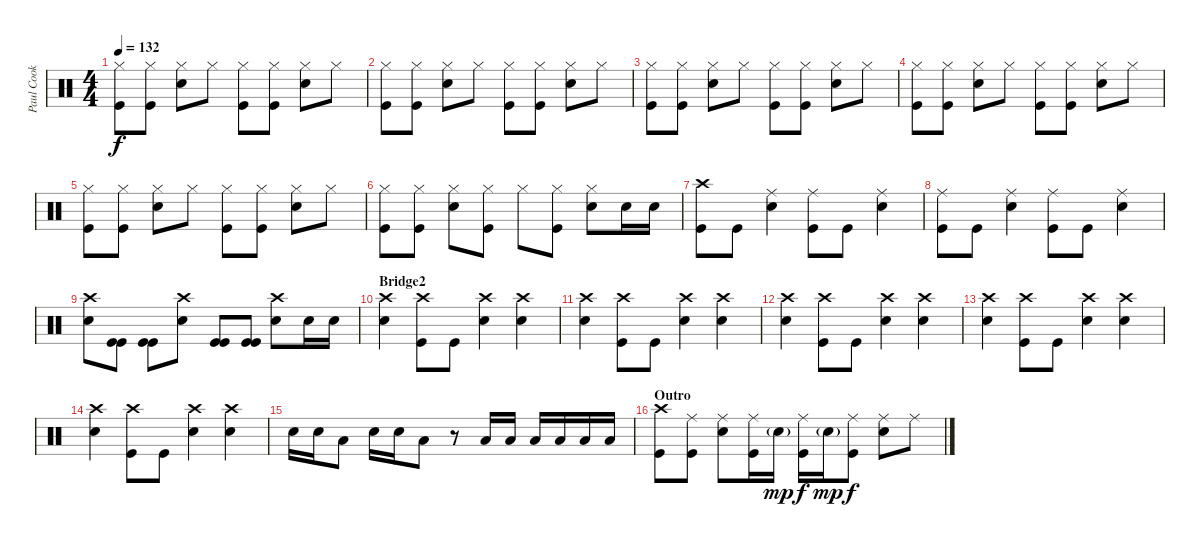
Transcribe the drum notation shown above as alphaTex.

\track ("Paul Cook" "Paul Cook") {instrument percussion}
\staff {score}
\articulation defaults
\ts (4 4)
\tempo 132
\clef neutral
\ks c
("Hi-Hat (closed)" "Kick (hit)").8{dy f} ("Hi-Hat (closed)" "Kick (hit)").8 ("Hi-Hat (closed)" "Snare (hit) 2").8 "Hi-Hat (closed)".8 ("Hi-Hat (closed)" "Kick (hit)").8 ("Hi-Hat (closed)" "Kick (hit)").8 ("Hi-Hat (closed)" "Snare (hit) 2").8 "Hi-Hat (closed)".8 |
("Hi-Hat (closed)" "Kick (hit)").8 ("Hi-Hat (closed)" "Kick (hit)").8 ("Hi-Hat (closed)" "Snare (hit) 2").8 "Hi-Hat (closed)".8 ("Hi-Hat (closed)" "Kick (hit)").8 ("Hi-Hat (closed)" "Kick (hit)").8 ("Hi-Hat (closed)" "Snare (hit) 2").8 "Hi-Hat (closed)".8 |
("Hi-Hat (closed)" "Kick (hit)").8 ("Hi-Hat (closed)" "Kick (hit)").8 ("Hi-Hat (closed)" "Snare (hit) 2").8 "Hi-Hat (closed)".8 ("Hi-Hat (closed)" "Kick (hit)").8 ("Hi-Hat (closed)" "Kick (hit)").8 ("Hi-Hat (closed)" "Snare (hit) 2").8 "Hi-Hat (closed)".8 |
("Hi-Hat (closed)" "Kick (hit)").8 ("Hi-Hat (closed)" "Kick (hit)").8 ("Hi-Hat (closed)" "Snare (hit) 2").8 "Hi-Hat (closed)".8 ("Hi-Hat (closed)" "Kick (hit)").8 ("Hi-Hat (closed)" "Kick (hit)").8 ("Hi-Hat (closed)" "Snare (hit) 2").8 "Hi-Hat (closed)".8 |
("Hi-Hat (closed)" "Kick (hit)").8 ("Hi-Hat (closed)" "Kick (hit)").8 ("Hi-Hat (closed)" "Snare (hit) 2").8 "Hi-Hat (closed)".8 ("Hi-Hat (closed)" "Kick (hit)").8 ("Hi-Hat (closed)" "Kick (hit)").8 ("Hi-Hat (closed)" "Snare (hit) 2").8 "Hi-Hat (closed)".8 |
("Hi-Hat (closed)" "Kick (hit)").8 ("Hi-Hat (closed)" "Kick (hit)").8 ("Hi-Hat (closed)" "Snare (hit) 2").8 ("Hi-Hat (closed)" "Kick (hit)").8 "Hi-Hat (closed)".8 ("Hi-Hat (closed)" "Kick (hit)").8 ("Hi-Hat (closed)" "Snare (hit) 2").8 "Snare (hit) 2".16 "Snare (hit) 2".16 |
("Crash high (hit)" "Kick (hit)").8 "Kick (hit)".8 ("Ride (middle)" "Snare (hit) 2").4 ("Ride (middle)" "Kick (hit)").8 "Kick (hit)".8 ("Ride (middle)" "Snare (hit) 2").4 |
("Ride (middle)" "Kick (hit)").8 "Kick (hit)".8 ("Ride (middle)" "Snare (hit) 2").4 ("Ride (middle)" "Kick (hit)").8 "Kick (hit)".8 ("Ride (middle)" "Snare (hit) 2").4 |
("Crash high (hit)" "Snare (hit) 2").8 ("Kick (hit)" "Kick (hit)").8 ("Kick (hit)" "Kick (hit)").8 ("Crash high (hit)" "Snare (hit) 2").8 ("Kick (hit)" "Kick (hit)").8 ("Kick (hit)" "Kick (hit)").8 ("Crash high (hit)" "Snare (hit) 2").8 "Snare (hit) 2".16 "Snare (hit) 2".16 |
\section ("" "Bridge2")
("Crash high (hit)" "Snare (hit) 2").4 ("Crash high (hit)" "Kick (hit)").8 "Kick (hit)".8 ("Crash high (hit)" "Snare (hit) 2").4 ("Crash high (hit)" "Snare (hit) 2").4 |
("Crash high (hit)" "Snare (hit) 2").4 ("Crash high (hit)" "Kick (hit)").8 "Kick (hit)".8 ("Crash high (hit)" "Snare (hit) 2").4 ("Crash high (hit)" "Snare (hit) 2").4 |
("Crash high (hit)" "Snare (hit) 2").4 ("Crash high (hit)" "Kick (hit)").8 "Kick (hit)".8 ("Crash high (hit)" "Snare (hit) 2").4 ("Crash high (hit)" "Snare (hit) 2").4 |
("Crash high (hit)" "Snare (hit) 2").4 ("Crash high (hit)" "Kick (hit)").8 "Kick (hit)".8 ("Crash high (hit)" "Snare (hit) 2").4 ("Crash high (hit)" "Snare (hit) 2").4 |
("Crash high (hit)" "Snare (hit) 2").4 ("Crash high (hit)" "Kick (hit)").8 "Kick (hit)".8 ("Crash high (hit)" "Snare (hit) 2").4 ("Crash high (hit)" "Snare (hit) 2").4 |
"Snare (hit) 2".16 "Snare (hit) 2".16 "Low Tom (hit)".8 "Snare (hit) 2".16 "Snare (hit) 2".16 "Low Tom (hit)".8 r.8 "Low Tom (hit)".16 "Low Tom (hit)".16 "Low Floor Tom (hit)".16 "Low Floor Tom (hit)".16 "Low Floor Tom (hit)".16 "Low Floor Tom (hit)".16 |
\section ("" "Outro")
("Crash high (hit)" "Kick (hit)").8 ("Ride (middle)" "Kick (hit)").8 ("Ride (middle)" "Snare (hit) 2").8 ("Ride (middle)" "Kick (hit)").16 "Snare (hit) 2"{g}.16{dy mp} ("Ride (middle)" "Kick (hit)").16{dy f} "Snare (hit) 2"{g}.16{dy mp} ("Ride (middle)" "Kick (hit)").8{dy f} ("Ride (middle)" "Snare (hit) 2").8 "Ride (middle)".8
